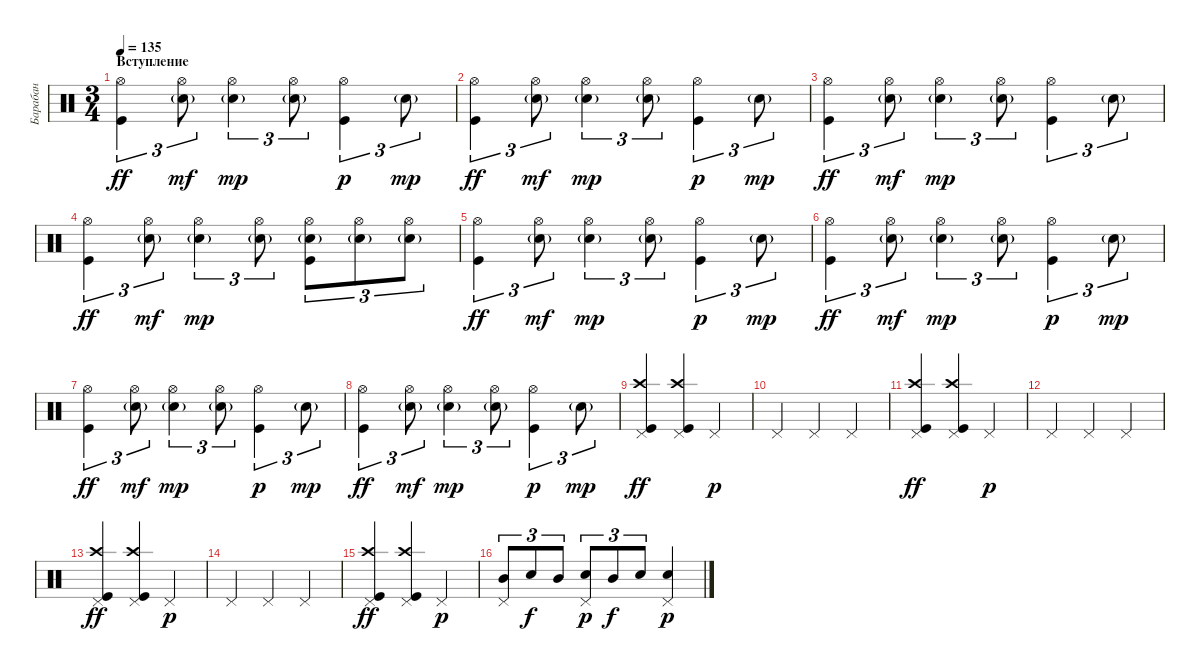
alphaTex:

\track ("Барабан" "Барабан") {instrument percussion}
\staff {score}
\articulation defaults
\ts (3 4)
\section ("" "Вступление")
\tempo 135
\clef neutral
\ks c
("Hi-Hat (open)" "Kick (hit)").4{tu (3 2) dy ff} ("Hi-Hat (open)" "Snare (hit) 2"{g}).8{tu (3 2) dy mf} ("Hi-Hat (open)" "Snare (hit) 2"{g}).4{tu (3 2) dy mp} ("Hi-Hat (open)" "Snare (hit) 2"{g}).8{tu (3 2)} ("Hi-Hat (open)" "Kick (hit)").4{tu (3 2) dy p} "Snare (hit) 2"{g}.8{tu (3 2) dy mp} |
("Hi-Hat (open)" "Kick (hit)").4{tu (3 2) dy ff} ("Hi-Hat (open)" "Snare (hit) 2"{g}).8{tu (3 2) dy mf} ("Hi-Hat (open)" "Snare (hit) 2"{g}).4{tu (3 2) dy mp} ("Hi-Hat (open)" "Snare (hit) 2"{g}).8{tu (3 2)} ("Hi-Hat (open)" "Kick (hit)").4{tu (3 2) dy p} "Snare (hit) 2"{g}.8{tu (3 2) dy mp} |
("Hi-Hat (open)" "Kick (hit)").4{tu (3 2) dy ff} ("Hi-Hat (open)" "Snare (hit) 2"{g}).8{tu (3 2) dy mf} ("Hi-Hat (open)" "Snare (hit) 2"{g}).4{tu (3 2) dy mp} ("Hi-Hat (open)" "Snare (hit) 2"{g}).8{tu (3 2)} ("Hi-Hat (open)" "Kick (hit)").4{tu (3 2)} "Snare (hit) 2"{g}.8{tu (3 2)} |
("Hi-Hat (open)" "Kick (hit)").4{tu (3 2) dy ff} ("Hi-Hat (open)" "Snare (hit) 2"{g}).8{tu (3 2) dy mf} ("Hi-Hat (open)" "Snare (hit) 2"{g}).4{tu (3 2) dy mp} ("Hi-Hat (open)" "Snare (hit) 2"{g}).8{tu (3 2)} ("Hi-Hat (open)" "Snare (hit) 2"{g} "Kick (hit)").8{tu (3 2)} ("Hi-Hat (open)" "Snare (hit) 2"{g}).8{tu (3 2)} ("Hi-Hat (open)" "Snare (hit) 2"{g}).8{tu (3 2)} |
("Hi-Hat (open)" "Kick (hit)").4{tu (3 2) dy ff} ("Hi-Hat (open)" "Snare (hit) 2"{g}).8{tu (3 2) dy mf} ("Hi-Hat (open)" "Snare (hit) 2"{g}).4{tu (3 2) dy mp} ("Hi-Hat (open)" "Snare (hit) 2"{g}).8{tu (3 2)} ("Hi-Hat (open)" "Kick (hit)").4{tu (3 2) dy p} "Snare (hit) 2"{g}.8{tu (3 2) dy mp} |
("Hi-Hat (open)" "Kick (hit)").4{tu (3 2) dy ff} ("Hi-Hat (open)" "Snare (hit) 2"{g}).8{tu (3 2) dy mf} ("Hi-Hat (open)" "Snare (hit) 2"{g}).4{tu (3 2) dy mp} ("Hi-Hat (open)" "Snare (hit) 2"{g}).8{tu (3 2)} ("Hi-Hat (open)" "Kick (hit)").4{tu (3 2) dy p} "Snare (hit) 2"{g}.8{tu (3 2) dy mp} |
("Hi-Hat (open)" "Kick (hit)").4{tu (3 2) dy ff} ("Hi-Hat (open)" "Snare (hit) 2"{g}).8{tu (3 2) dy mf} ("Hi-Hat (open)" "Snare (hit) 2"{g}).4{tu (3 2) dy mp} ("Hi-Hat (open)" "Snare (hit) 2"{g}).8{tu (3 2)} ("Hi-Hat (open)" "Kick (hit)").4{tu (3 2) dy p} "Snare (hit) 2"{g}.8{tu (3 2) dy mp} |
("Hi-Hat (open)" "Kick (hit)").4{tu (3 2) dy ff} ("Hi-Hat (open)" "Snare (hit) 2"{g}).8{tu (3 2) dy mf} ("Hi-Hat (open)" "Snare (hit) 2"{g}).4{tu (3 2) dy mp} ("Hi-Hat (open)" "Snare (hit) 2"{g}).8{tu (3 2)} ("Hi-Hat (open)" "Kick (hit)").4{tu (3 2) dy p} "Snare (hit) 2"{g}.8{tu (3 2) dy mp} |
("Crash high (hit)" "Pedal Hi-Hat (hit)" "Kick (hit)").4{dy ff} ("Crash high (hit)" "Pedal Hi-Hat (hit)" "Kick (hit)").4 "Pedal Hi-Hat (hit)".4{dy p} |
"Pedal Hi-Hat (hit)".4 "Pedal Hi-Hat (hit)".4 "Pedal Hi-Hat (hit)".4 |
("Crash high (hit)" "Pedal Hi-Hat (hit)" "Kick (hit)").4{dy ff} ("Crash high (hit)" "Pedal Hi-Hat (hit)" "Kick (hit)").4 "Pedal Hi-Hat (hit)".4{dy p} |
"Pedal Hi-Hat (hit)".4 "Pedal Hi-Hat (hit)".4 "Pedal Hi-Hat (hit)".4 |
("Crash high (hit)" "Pedal Hi-Hat (hit)" "Kick (hit)").4{dy ff} ("Crash high (hit)" "Pedal Hi-Hat (hit)" "Kick (hit)").4 "Pedal Hi-Hat (hit)".4{dy p} |
"Pedal Hi-Hat (hit)".4 "Pedal Hi-Hat (hit)".4 "Pedal Hi-Hat (hit)".4 |
("Crash high (hit)" "Pedal Hi-Hat (hit)" "Kick (hit)").4{dy ff} ("Crash high (hit)" "Pedal Hi-Hat (hit)" "Kick (hit)").4 "Pedal Hi-Hat (hit)".4{dy p} |
("Pedal Hi-Hat (hit)" "Mid Tom (hit)").8{tu (3 2)} "Snare (hit) 2".8{tu (3 2) dy f} "Mid Tom (hit)".8{tu (3 2)} ("Pedal Hi-Hat (hit)" "Snare (hit) 2").8{tu (3 2) dy p} "Mid Tom (hit)".8{tu (3 2) dy f} "Snare (hit) 2".8{tu (3 2)} ("Pedal Hi-Hat (hit)" "Snare (hit) 2").4{dy p}
